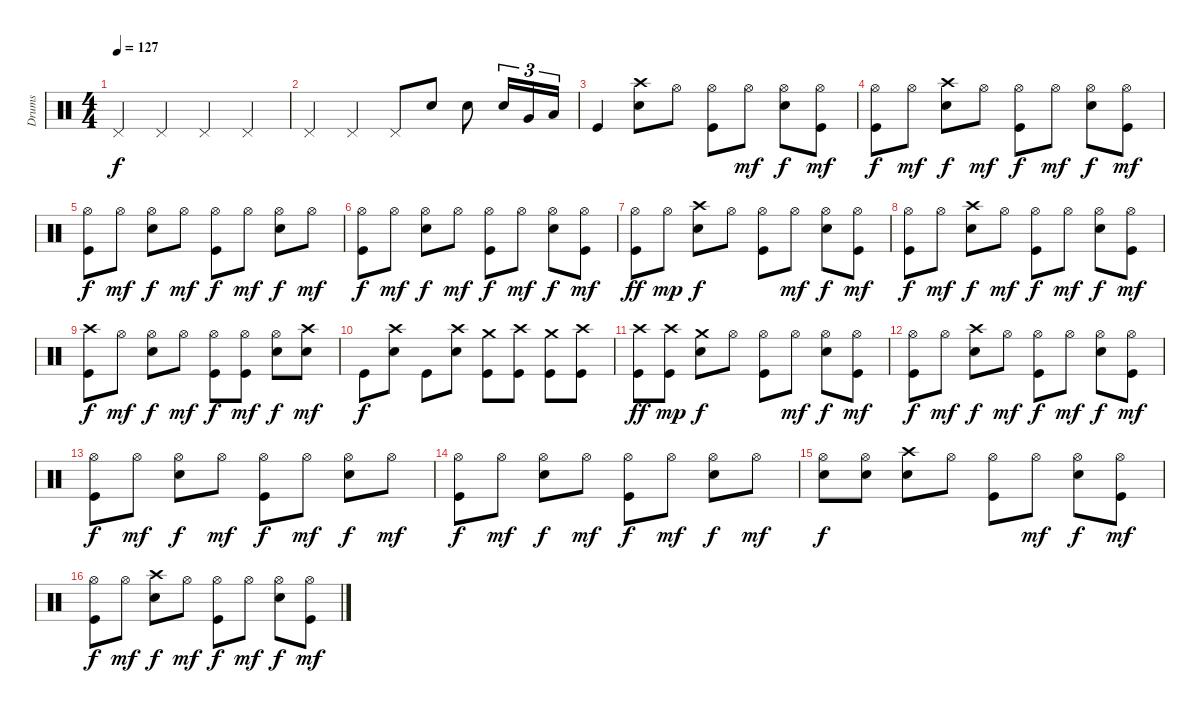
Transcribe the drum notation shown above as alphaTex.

\track ("Drums" "Drums") {instrument percussion}
\staff {score}
\articulation defaults
\ts (4 4)
\tempo 127
\clef neutral
\ks c "Pedal Hi-Hat (hit)".4{dy f} "Pedal Hi-Hat (hit)".4 "Pedal Hi-Hat (hit)".4 "Pedal Hi-Hat (hit)".4
|
"Pedal Hi-Hat (hit)".4 "Pedal Hi-Hat (hit)".4 "Pedal Hi-Hat (hit)".8 "Snare (hit) 2".8 "Snare (hit) 2".8 "Snare (hit) 2".16{tu (3 2)} "Very Low Tom (hit)".16{tu (3 2)} "Low Floor Tom (hit)".16{tu (3 2)} |
"Kick (hit)".4 ("Crash high (hit)" "Snare (hit) 2").8 "Hi-Hat (open)".8 ("Hi-Hat (open)" "Kick (hit)").8 "Hi-Hat (open)".8{dy mf} ("Hi-Hat (open)" "Snare (hit) 2").8{dy f} ("Hi-Hat (open)" "Kick (hit)").8{dy mf} |
("Hi-Hat (open)" "Kick (hit)").8{dy f} "Hi-Hat (open)".8{dy mf} ("Crash high (hit)" "Snare (hit) 2").8{dy f} "Hi-Hat (open)".8{dy mf} ("Hi-Hat (open)" "Kick (hit)").8{dy f} "Hi-Hat (open)".8{dy mf} ("Hi-Hat (open)" "Snare (hit) 2").8{dy f} ("Hi-Hat (open)" "Kick (hit)").8{dy mf} |
("Hi-Hat (open)" "Kick (hit)").8{dy f} "Hi-Hat (open)".8{dy mf} ("Hi-Hat (open)" "Snare (hit) 2").8{dy f} "Hi-Hat (open)".8{dy mf} ("Hi-Hat (open)" "Kick (hit)").8{dy f} "Hi-Hat (open)".8{dy mf} ("Hi-Hat (open)" "Snare (hit) 2").8{dy f} "Hi-Hat (open)".8{dy mf} |
("Hi-Hat (open)" "Kick (hit)").8{dy f} "Hi-Hat (open)".8{dy mf} ("Hi-Hat (open)" "Snare (hit) 2").8{dy f} "Hi-Hat (open)".8{dy mf} ("Hi-Hat (open)" "Kick (hit)").8{dy f} "Hi-Hat (open)".8{dy mf} ("Hi-Hat (open)" "Snare (hit) 2").8{dy f} ("Hi-Hat (open)" "Kick (hit)").8{dy mf} |
("Hi-Hat (open)" "Kick (hit)").8{dy ff} "Hi-Hat (open)".8{dy mp} ("Crash high (hit)" "Snare (hit) 2").8{dy f} "Hi-Hat (open)".8 ("Hi-Hat (open)" "Kick (hit)").8 "Hi-Hat (open)".8{dy mf} ("Hi-Hat (open)" "Snare (hit) 2").8{dy f} ("Hi-Hat (open)" "Kick (hit)").8{dy mf} |
("Hi-Hat (open)" "Kick (hit)").8{dy f} "Hi-Hat (open)".8{dy mf} ("Crash high (hit)" "Snare (hit) 2").8{dy f} "Hi-Hat (open)".8{dy mf} ("Hi-Hat (open)" "Kick (hit)").8{dy f} "Hi-Hat (open)".8{dy mf} ("Hi-Hat (open)" "Snare (hit) 2").8{dy f} ("Hi-Hat (open)" "Kick (hit)").8{dy mf} |
("Crash high (hit)" "Kick (hit)").8{dy f} "Hi-Hat (open)".8{dy mf} ("Hi-Hat (open)" "Snare (hit) 2").8{dy f} "Hi-Hat (open)".8{dy mf} ("Hi-Hat (open)" "Kick (hit)").8{dy f} ("Hi-Hat (open)" "Kick (hit)").8{dy mf} ("Hi-Hat (open)" "Snare (hit) 2").8{dy f} ("Crash high (hit)" "Snare (hit) 2").8{dy mf} |
"Kick (hit)".8{dy f} ("Crash high (hit)" "Snare (hit) 2").8 "Kick (hit)".8 ("Crash high (hit)" "Snare (hit) 2").8 ("Crash medium (hit)" "Kick (hit)").8 ("Crash high (hit)" "Kick (hit)").8 ("Crash medium (hit)" "Kick (hit)").8 ("Crash high (hit)" "Kick (hit)").8 |
("Crash high (hit)" "Kick (hit)").8{dy ff} ("Crash high (hit)" "Kick (hit)").8{dy mp} ("Crash medium (hit)" "Snare (hit) 2").8{dy f} "Hi-Hat (open)".8 ("Hi-Hat (open)" "Kick (hit)").8 "Hi-Hat (open)".8{dy mf} ("Hi-Hat (open)" "Snare (hit) 2").8{dy f} ("Hi-Hat (open)" "Kick (hit)").8{dy mf} |
("Hi-Hat (open)" "Kick (hit)").8{dy f} "Hi-Hat (open)".8{dy mf} ("Crash high (hit)" "Snare (hit) 2").8{dy f} "Hi-Hat (open)".8{dy mf} ("Hi-Hat (open)" "Kick (hit)").8{dy f} "Hi-Hat (open)".8{dy mf} ("Hi-Hat (open)" "Snare (hit) 2").8{dy f} ("Hi-Hat (open)" "Kick (hit)").8{dy mf} |
("Hi-Hat (open)" "Kick (hit)").8{dy f} "Hi-Hat (open)".8{dy mf} ("Hi-Hat (open)" "Snare (hit) 2").8{dy f} "Hi-Hat (open)".8{dy mf} ("Hi-Hat (open)" "Kick (hit)").8{dy f} "Hi-Hat (open)".8{dy mf} ("Hi-Hat (open)" "Snare (hit) 2").8{dy f} "Hi-Hat (open)".8{dy mf} |
("Hi-Hat (open)" "Kick (hit)").8{dy f} "Hi-Hat (open)".8{dy mf} ("Hi-Hat (open)" "Snare (hit) 2").8{dy f} "Hi-Hat (open)".8{dy mf} ("Hi-Hat (open)" "Kick (hit)").8{dy f} "Hi-Hat (open)".8{dy mf} ("Hi-Hat (open)" "Snare (hit) 2").8{dy f} "Hi-Hat (open)".8{dy mf} |
("Hi-Hat (open)" "Snare (hit) 2").8{dy f} ("Hi-Hat (open)" "Snare (hit) 2").8 ("Crash high (hit)" "Snare (hit) 2").8 "Hi-Hat (open)".8 ("Hi-Hat (open)" "Kick (hit)").8 "Hi-Hat (open)".8{dy mf} ("Hi-Hat (open)" "Snare (hit) 2").8{dy f} ("Hi-Hat (open)" "Kick (hit)").8{dy mf} |
("Hi-Hat (open)" "Kick (hit)").8{dy f} "Hi-Hat (open)".8{dy mf} ("Crash high (hit)" "Snare (hit) 2").8{dy f} "Hi-Hat (open)".8{dy mf} ("Hi-Hat (open)" "Kick (hit)").8{dy f} "Hi-Hat (open)".8{dy mf} ("Hi-Hat (open)" "Snare (hit) 2").8{dy f} ("Hi-Hat (open)" "Kick (hit)").8{dy mf}
